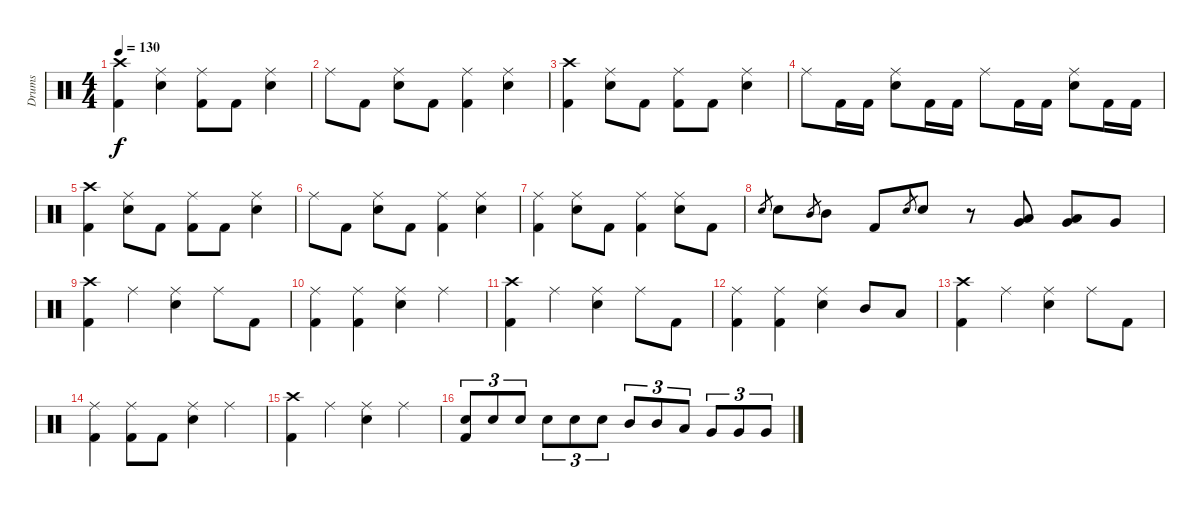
\track ("Drums" "Drums") {instrument percussion}
\staff {score}
\articulation defaults
\ts (4 4)
\tempo 130
\clef neutral
\ks c
("Crash high (hit)" "Kick (hit) 2").4{dy f} ("Ride (middle)" "Electric Snare (hit)").4 ("Ride (middle)" "Kick (hit) 2").8 "Kick (hit) 2".8 ("Ride (middle)" "Electric Snare (hit)").4 |
"Ride (middle)".8 "Kick (hit) 2".8 ("Ride (middle)" "Electric Snare (hit)").8 "Kick (hit) 2".8 ("Ride (middle)" "Kick (hit) 2").4 ("Ride (middle)" "Electric Snare (hit)").4 |
("Crash high (hit)" "Kick (hit) 2").4 ("Ride (middle)" "Electric Snare (hit)").8 "Kick (hit) 2".8 ("Ride (middle)" "Kick (hit) 2").8 "Kick (hit) 2".8 ("Ride (middle)" "Electric Snare (hit)").4 |
"Ride (middle)".8 "Kick (hit) 2".16 "Kick (hit) 2".16 ("Ride (middle)" "Electric Snare (hit)").8 "Kick (hit) 2".16 "Kick (hit) 2".16 "Ride (middle)".8 "Kick (hit) 2".16 "Kick (hit) 2".16 ("Ride (middle)" "Electric Snare (hit)").8 "Kick (hit) 2".16 "Kick (hit) 2".16 |
("Crash high (hit)" "Kick (hit) 2").4 ("Ride (middle)" "Electric Snare (hit)").8 "Kick (hit) 2".8 ("Ride (middle)" "Kick (hit) 2").8 "Kick (hit) 2".8 ("Ride (middle)" "Electric Snare (hit)").4 |
"Ride (middle)".8 "Kick (hit) 2".8 ("Ride (middle)" "Electric Snare (hit)").8 "Kick (hit) 2".8 ("Ride (middle)" "Kick (hit) 2").4 ("Ride (middle)" "Electric Snare (hit)").4 |
("Ride (middle)" "Kick (hit) 2").4 ("Ride (middle)" "Electric Snare (hit)").8 "Kick (hit) 2".8 ("Ride (middle)" "Kick (hit) 2").4 ("Ride (middle)" "Electric Snare (hit)").8 "Kick (hit) 2".8 |
"Electric Snare (hit)".8{gr} "Electric Snare (hit)".8 "Mid Tom (hit)".8{gr} "Mid Tom (hit)".8 "Kick (hit) 2".8 "Electric Snare (hit)".8{gr} "Electric Snare (hit)".8 r.8 ("Low Tom (hit)" "Very Low Tom (hit)").8 ("Low Tom (hit)" "Very Low Tom (hit)").8 "Very Low Tom (hit)".8 |
("Crash high (hit)" "Kick (hit) 2").4 "Ride (middle)".4 ("Ride (middle)" "Electric Snare (hit)").4 "Ride (middle)".8 "Kick (hit) 2".8 |
("Ride (middle)" "Kick (hit) 2").4 ("Ride (middle)" "Kick (hit) 2").4 ("Ride (middle)" "Electric Snare (hit)").4 "Ride (middle)".4 |
("Crash high (hit)" "Kick (hit) 2").4 "Ride (middle)".4 ("Ride (middle)" "Electric Snare (hit)").4 "Ride (middle)".8 "Kick (hit) 2".8 |
("Ride (middle)" "Kick (hit) 2").4 ("Ride (middle)" "Kick (hit) 2").4 ("Ride (middle)" "Electric Snare (hit)").4 "Mid Tom (hit)".8 "Low Tom (hit)".8 |
("Crash high (hit)" "Kick (hit) 2").4 "Ride (middle)".4 ("Ride (middle)" "Electric Snare (hit)").4 "Ride (middle)".8 "Kick (hit) 2".8 |
("Ride (middle)" "Kick (hit) 2").4 ("Ride (middle)" "Kick (hit) 2").8 "Kick (hit) 2".8 ("Ride (middle)" "Electric Snare (hit)").4 "Ride (middle)".4 |
("Crash high (hit)" "Kick (hit) 2").4 "Ride (middle)".4 ("Ride (middle)" "Electric Snare (hit)").4 "Ride (middle)".4 |
("Electric Snare (hit)" "Kick (hit) 2").8{tu (3 2)} "Electric Snare (hit)".8{tu (3 2)} "Electric Snare (hit)".8{tu (3 2)} "Electric Snare (hit)".8{tu (3 2)} "Electric Snare (hit)".8{tu (3 2)} "Electric Snare (hit)".8{tu (3 2)} "Mid Tom (hit)".8{tu (3 2)} "Mid Tom (hit)".8{tu (3 2)} "Low Tom (hit)".8{tu (3 2)} "Very Low Tom (hit)".8{tu (3 2)} "Very Low Tom (hit)".8{tu (3 2)} "Very Low Tom (hit)".8{tu (3 2)}
